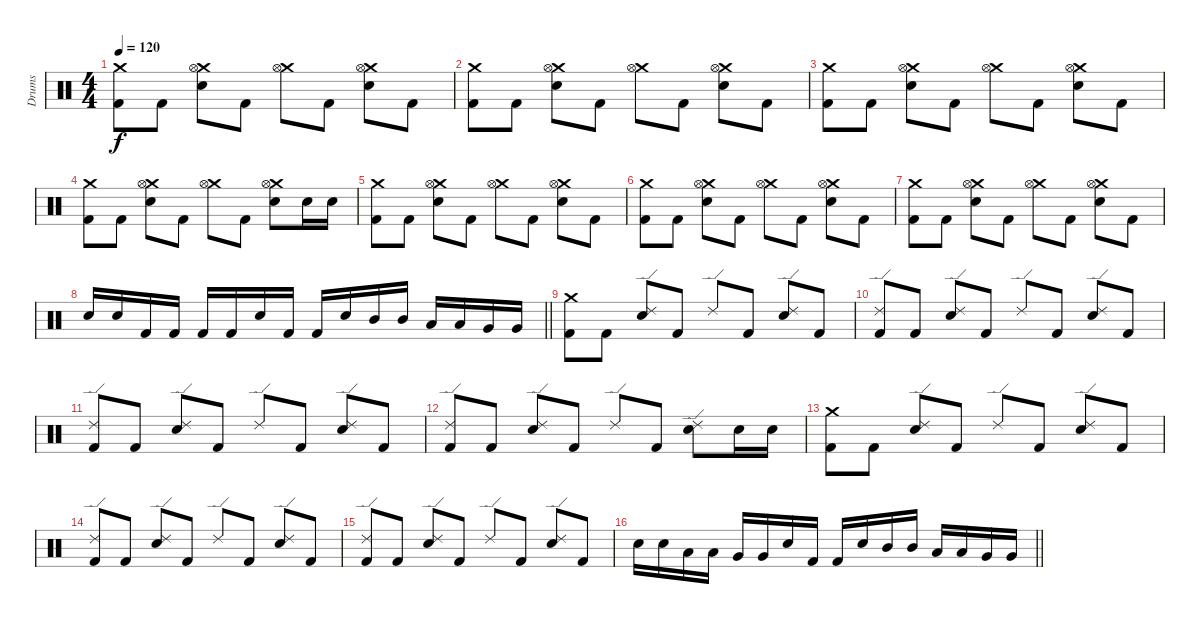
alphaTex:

\track ("Drums" "Drums") {instrument percussion}
\staff {score}
\articulation defaults
\ts (4 4)
\section ("" "")
\tempo 120
\clef neutral
\ks c
("Crash medium (hit)" "Kick (hit) 2").8{dy f} "Kick (hit) 2".8 ("Crash medium (hit)" "Hi-Hat (open)" "Electric Snare (hit)").8 "Kick (hit) 2".8 ("Crash medium (hit)" "Hi-Hat (open)").8 "Kick (hit) 2".8 ("Crash medium (hit)" "Hi-Hat (open)" "Electric Snare (hit)").8 "Kick (hit) 2".8 |
("Crash medium (hit)" "Kick (hit) 2").8 "Kick (hit) 2".8 ("Crash medium (hit)" "Hi-Hat (open)" "Electric Snare (hit)").8 "Kick (hit) 2".8 ("Crash medium (hit)" "Hi-Hat (open)").8 "Kick (hit) 2".8 ("Crash medium (hit)" "Hi-Hat (open)" "Electric Snare (hit)").8 "Kick (hit) 2".8 |
("Crash medium (hit)" "Kick (hit) 2").8 "Kick (hit) 2".8 ("Crash medium (hit)" "Hi-Hat (open)" "Electric Snare (hit)").8 "Kick (hit) 2".8 ("Crash medium (hit)" "Hi-Hat (open)").8 "Kick (hit) 2".8 ("Crash medium (hit)" "Hi-Hat (open)" "Electric Snare (hit)").8 "Kick (hit) 2".8 |
("Crash medium (hit)" "Kick (hit) 2").8 "Kick (hit) 2".8 ("Crash medium (hit)" "Hi-Hat (open)" "Electric Snare (hit)").8 "Kick (hit) 2".8 ("Crash medium (hit)" "Hi-Hat (open)").8 "Kick (hit) 2".8 ("Crash medium (hit)" "Hi-Hat (open)" "Electric Snare (hit)").8 "Electric Snare (hit)".16 "Electric Snare (hit)".16 |
("Crash medium (hit)" "Kick (hit) 2").8 "Kick (hit) 2".8 ("Crash medium (hit)" "Hi-Hat (open)" "Electric Snare (hit)").8 "Kick (hit) 2".8 ("Crash medium (hit)" "Hi-Hat (open)").8 "Kick (hit) 2".8 ("Crash medium (hit)" "Hi-Hat (open)" "Electric Snare (hit)").8 "Kick (hit) 2".8 |
("Crash medium (hit)" "Kick (hit) 2").8 "Kick (hit) 2".8 ("Crash medium (hit)" "Hi-Hat (open)" "Electric Snare (hit)").8 "Kick (hit) 2".8 ("Crash medium (hit)" "Hi-Hat (open)").8 "Kick (hit) 2".8 ("Crash medium (hit)" "Hi-Hat (open)" "Electric Snare (hit)").8 "Kick (hit) 2".8 |
("Crash medium (hit)" "Kick (hit) 2").8 "Kick (hit) 2".8 ("Crash medium (hit)" "Hi-Hat (open)" "Electric Snare (hit)").8 "Kick (hit) 2".8 ("Crash medium (hit)" "Hi-Hat (open)").8 "Kick (hit) 2".8 ("Crash medium (hit)" "Hi-Hat (open)" "Electric Snare (hit)").8 "Kick (hit) 2".8 |
\barLineRight lightlight "Electric Snare (hit)".16 "Electric Snare (hit)".16 "Kick (hit) 2".16 "Kick (hit) 2".16 "Kick (hit) 2".16 "Kick (hit) 2".16 "Electric Snare (hit)".16 "Kick (hit) 2".16 "Kick (hit) 2".16 "Electric Snare (hit)".16 "Mid Tom (hit)".16 "Mid Tom (hit)".16 "Low Tom (hit)".16 "Low Tom (hit)".16 "Very Low Tom (hit)".16 "Very Low Tom (hit)".16
|
("Crash medium (hit)" "Kick (hit) 2").8 "Kick (hit) 2".8 ("Ride (edge) 2" "Electric Snare (hit)").8 "Kick (hit) 2".8 "Ride (edge) 2".8 "Kick (hit) 2".8 ("Ride (edge) 2" "Electric Snare (hit)").8 "Kick (hit) 2".8 |
("Ride (edge) 2" "Kick (hit) 2").8 "Kick (hit) 2".8 ("Ride (edge) 2" "Electric Snare (hit)").8 "Kick (hit) 2".8 "Ride (edge) 2".8 "Kick (hit) 2".8 ("Ride (edge) 2" "Electric Snare (hit)").8 "Kick (hit) 2".8 |
("Ride (edge) 2" "Kick (hit) 2").8 "Kick (hit) 2".8 ("Ride (edge) 2" "Electric Snare (hit)").8 "Kick (hit) 2".8 "Ride (edge) 2".8 "Kick (hit) 2".8 ("Ride (edge) 2" "Electric Snare (hit)").8 "Kick (hit) 2".8 |
("Ride (edge) 2" "Kick (hit) 2").8 "Kick (hit) 2".8 ("Ride (edge) 2" "Electric Snare (hit)").8 "Kick (hit) 2".8 "Ride (edge) 2".8 "Kick (hit) 2".8 ("Ride (edge) 2" "Electric Snare (hit)").8 "Electric Snare (hit)".16 "Electric Snare (hit)".16 |
("Crash medium (hit)" "Kick (hit) 2").8 "Kick (hit) 2".8 ("Ride (edge) 2" "Electric Snare (hit)").8 "Kick (hit) 2".8 "Ride (edge) 2".8 "Kick (hit) 2".8 ("Ride (edge) 2" "Electric Snare (hit)").8 "Kick (hit) 2".8 |
("Ride (edge) 2" "Kick (hit) 2").8 "Kick (hit) 2".8 ("Ride (edge) 2" "Electric Snare (hit)").8 "Kick (hit) 2".8 "Ride (edge) 2".8 "Kick (hit) 2".8 ("Ride (edge) 2" "Electric Snare (hit)").8 "Kick (hit) 2".8 |
("Ride (edge) 2" "Kick (hit) 2").8 "Kick (hit) 2".8 ("Ride (edge) 2" "Electric Snare (hit)").8 "Kick (hit) 2".8 "Ride (edge) 2".8 "Kick (hit) 2".8 ("Ride (edge) 2" "Electric Snare (hit)").8 "Kick (hit) 2".8 |
\barLineRight lightlight "Electric Snare (hit)".16 "Electric Snare (hit)".16 "Low Tom (hit)".16 "Low Tom (hit)".16 "Very Low Tom (hit)".16 "Very Low Tom (hit)".16 "Electric Snare (hit)".16 "Kick (hit) 2".16 "Kick (hit) 2".16 "Electric Snare (hit)".16 "Mid Tom (hit)".16 "Mid Tom (hit)".16 "Low Tom (hit)".16 "Low Tom (hit)".16 "Very Low Tom (hit)".16 "Very Low Tom (hit)".16
